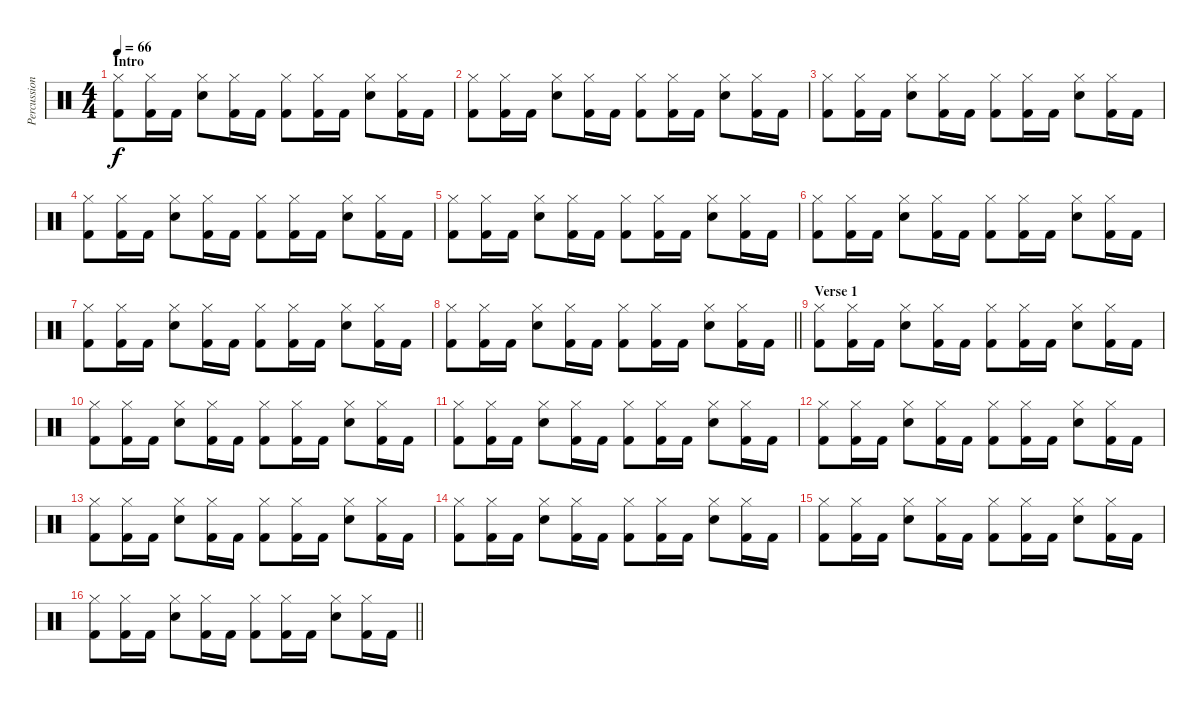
\track ("Percussion" "Percussion") {instrument percussion}
\staff {score}
\articulation defaults
\ts (4 4)
\section ("" "Intro")
\tempo 66
\clef neutral
\ks c
("Hi-Hat (closed)" "Kick (hit) 2").8{dy f} ("Hi-Hat (closed)" "Kick (hit) 2").16 "Kick (hit) 2".16 ("Hi-Hat (closed)" "Electric Snare (hit)").8 ("Hi-Hat (closed)" "Kick (hit) 2").16 "Kick (hit) 2".16 ("Hi-Hat (closed)" "Kick (hit) 2").8 ("Hi-Hat (closed)" "Kick (hit) 2").16 "Kick (hit) 2".16 ("Hi-Hat (closed)" "Electric Snare (hit)").8 ("Hi-Hat (closed)" "Kick (hit) 2").16 "Kick (hit) 2".16 |
("Hi-Hat (closed)" "Kick (hit) 2").8 ("Hi-Hat (closed)" "Kick (hit) 2").16 "Kick (hit) 2".16 ("Hi-Hat (closed)" "Electric Snare (hit)").8 ("Hi-Hat (closed)" "Kick (hit) 2").16 "Kick (hit) 2".16 ("Hi-Hat (closed)" "Kick (hit) 2").8 ("Hi-Hat (closed)" "Kick (hit) 2").16 "Kick (hit) 2".16 ("Hi-Hat (closed)" "Electric Snare (hit)").8 ("Hi-Hat (closed)" "Kick (hit) 2").16 "Kick (hit) 2".16 |
("Hi-Hat (closed)" "Kick (hit) 2").8 ("Hi-Hat (closed)" "Kick (hit) 2").16 "Kick (hit) 2".16 ("Hi-Hat (closed)" "Electric Snare (hit)").8 ("Hi-Hat (closed)" "Kick (hit) 2").16 "Kick (hit) 2".16 ("Hi-Hat (closed)" "Kick (hit) 2").8 ("Hi-Hat (closed)" "Kick (hit) 2").16 "Kick (hit) 2".16 ("Hi-Hat (closed)" "Electric Snare (hit)").8 ("Hi-Hat (closed)" "Kick (hit) 2").16 "Kick (hit) 2".16 |
("Hi-Hat (closed)" "Kick (hit) 2").8 ("Hi-Hat (closed)" "Kick (hit) 2").16 "Kick (hit) 2".16 ("Hi-Hat (closed)" "Electric Snare (hit)").8 ("Hi-Hat (closed)" "Kick (hit) 2").16 "Kick (hit) 2".16 ("Hi-Hat (closed)" "Kick (hit) 2").8 ("Hi-Hat (closed)" "Kick (hit) 2").16 "Kick (hit) 2".16 ("Hi-Hat (closed)" "Electric Snare (hit)").8 ("Hi-Hat (closed)" "Kick (hit) 2").16 "Kick (hit) 2".16 |
("Hi-Hat (closed)" "Kick (hit) 2").8 ("Hi-Hat (closed)" "Kick (hit) 2").16 "Kick (hit) 2".16 ("Hi-Hat (closed)" "Electric Snare (hit)").8 ("Hi-Hat (closed)" "Kick (hit) 2").16 "Kick (hit) 2".16 ("Hi-Hat (closed)" "Kick (hit) 2").8 ("Hi-Hat (closed)" "Kick (hit) 2").16 "Kick (hit) 2".16 ("Hi-Hat (closed)" "Electric Snare (hit)").8 ("Hi-Hat (closed)" "Kick (hit) 2").16 "Kick (hit) 2".16 |
("Hi-Hat (closed)" "Kick (hit) 2").8 ("Hi-Hat (closed)" "Kick (hit) 2").16 "Kick (hit) 2".16 ("Hi-Hat (closed)" "Electric Snare (hit)").8 ("Hi-Hat (closed)" "Kick (hit) 2").16 "Kick (hit) 2".16 ("Hi-Hat (closed)" "Kick (hit) 2").8 ("Hi-Hat (closed)" "Kick (hit) 2").16 "Kick (hit) 2".16 ("Hi-Hat (closed)" "Electric Snare (hit)").8 ("Hi-Hat (closed)" "Kick (hit) 2").16 "Kick (hit) 2".16 |
("Hi-Hat (closed)" "Kick (hit) 2").8 ("Hi-Hat (closed)" "Kick (hit) 2").16 "Kick (hit) 2".16 ("Hi-Hat (closed)" "Electric Snare (hit)").8 ("Hi-Hat (closed)" "Kick (hit) 2").16 "Kick (hit) 2".16 ("Hi-Hat (closed)" "Kick (hit) 2").8 ("Hi-Hat (closed)" "Kick (hit) 2").16 "Kick (hit) 2".16 ("Hi-Hat (closed)" "Electric Snare (hit)").8 ("Hi-Hat (closed)" "Kick (hit) 2").16 "Kick (hit) 2".16 |
\barLineRight lightlight
("Hi-Hat (closed)" "Kick (hit) 2").8 ("Hi-Hat (closed)" "Kick (hit) 2").16 "Kick (hit) 2".16 ("Hi-Hat (closed)" "Electric Snare (hit)").8 ("Hi-Hat (closed)" "Kick (hit) 2").16 "Kick (hit) 2".16 ("Hi-Hat (closed)" "Kick (hit) 2").8 ("Hi-Hat (closed)" "Kick (hit) 2").16 "Kick (hit) 2".16 ("Hi-Hat (closed)" "Electric Snare (hit)").8 ("Hi-Hat (closed)" "Kick (hit) 2").16 "Kick (hit) 2".16 |
\section ("" "Verse 1")
("Hi-Hat (closed)" "Kick (hit) 2").8 ("Hi-Hat (closed)" "Kick (hit) 2").16 "Kick (hit) 2".16 ("Hi-Hat (closed)" "Electric Snare (hit)").8 ("Hi-Hat (closed)" "Kick (hit) 2").16 "Kick (hit) 2".16 ("Hi-Hat (closed)" "Kick (hit) 2").8 ("Hi-Hat (closed)" "Kick (hit) 2").16 "Kick (hit) 2".16 ("Hi-Hat (closed)" "Electric Snare (hit)").8 ("Hi-Hat (closed)" "Kick (hit) 2").16 "Kick (hit) 2".16 |
("Hi-Hat (closed)" "Kick (hit) 2").8 ("Hi-Hat (closed)" "Kick (hit) 2").16 "Kick (hit) 2".16 ("Hi-Hat (closed)" "Electric Snare (hit)").8 ("Hi-Hat (closed)" "Kick (hit) 2").16 "Kick (hit) 2".16 ("Hi-Hat (closed)" "Kick (hit) 2").8 ("Hi-Hat (closed)" "Kick (hit) 2").16 "Kick (hit) 2".16 ("Hi-Hat (closed)" "Electric Snare (hit)").8 ("Hi-Hat (closed)" "Kick (hit) 2").16 "Kick (hit) 2".16 |
("Hi-Hat (closed)" "Kick (hit) 2").8 ("Hi-Hat (closed)" "Kick (hit) 2").16 "Kick (hit) 2".16 ("Hi-Hat (closed)" "Electric Snare (hit)").8 ("Hi-Hat (closed)" "Kick (hit) 2").16 "Kick (hit) 2".16 ("Hi-Hat (closed)" "Kick (hit) 2").8 ("Hi-Hat (closed)" "Kick (hit) 2").16 "Kick (hit) 2".16 ("Hi-Hat (closed)" "Electric Snare (hit)").8 ("Hi-Hat (closed)" "Kick (hit) 2").16 "Kick (hit) 2".16 |
("Hi-Hat (closed)" "Kick (hit) 2").8 ("Hi-Hat (closed)" "Kick (hit) 2").16 "Kick (hit) 2".16 ("Hi-Hat (closed)" "Electric Snare (hit)").8 ("Hi-Hat (closed)" "Kick (hit) 2").16 "Kick (hit) 2".16 ("Hi-Hat (closed)" "Kick (hit) 2").8 ("Hi-Hat (closed)" "Kick (hit) 2").16 "Kick (hit) 2".16 ("Hi-Hat (closed)" "Electric Snare (hit)").8 ("Hi-Hat (closed)" "Kick (hit) 2").16 "Kick (hit) 2".16 |
("Hi-Hat (closed)" "Kick (hit) 2").8 ("Hi-Hat (closed)" "Kick (hit) 2").16 "Kick (hit) 2".16 ("Hi-Hat (closed)" "Electric Snare (hit)").8 ("Hi-Hat (closed)" "Kick (hit) 2").16 "Kick (hit) 2".16 ("Hi-Hat (closed)" "Kick (hit) 2").8 ("Hi-Hat (closed)" "Kick (hit) 2").16 "Kick (hit) 2".16 ("Hi-Hat (closed)" "Electric Snare (hit)").8 ("Hi-Hat (closed)" "Kick (hit) 2").16 "Kick (hit) 2".16 |
("Hi-Hat (closed)" "Kick (hit) 2").8 ("Hi-Hat (closed)" "Kick (hit) 2").16 "Kick (hit) 2".16 ("Hi-Hat (closed)" "Electric Snare (hit)").8 ("Hi-Hat (closed)" "Kick (hit) 2").16 "Kick (hit) 2".16 ("Hi-Hat (closed)" "Kick (hit) 2").8 ("Hi-Hat (closed)" "Kick (hit) 2").16 "Kick (hit) 2".16 ("Hi-Hat (closed)" "Electric Snare (hit)").8 ("Hi-Hat (closed)" "Kick (hit) 2").16 "Kick (hit) 2".16 |
("Hi-Hat (closed)" "Kick (hit) 2").8 ("Hi-Hat (closed)" "Kick (hit) 2").16 "Kick (hit) 2".16 ("Hi-Hat (closed)" "Electric Snare (hit)").8 ("Hi-Hat (closed)" "Kick (hit) 2").16 "Kick (hit) 2".16 ("Hi-Hat (closed)" "Kick (hit) 2").8 ("Hi-Hat (closed)" "Kick (hit) 2").16 "Kick (hit) 2".16 ("Hi-Hat (closed)" "Electric Snare (hit)").8 ("Hi-Hat (closed)" "Kick (hit) 2").16 "Kick (hit) 2".16 |
\barLineRight lightlight
("Hi-Hat (closed)" "Kick (hit) 2").8 ("Hi-Hat (closed)" "Kick (hit) 2").16 "Kick (hit) 2".16 ("Hi-Hat (closed)" "Electric Snare (hit)").8 ("Hi-Hat (closed)" "Kick (hit) 2").16 "Kick (hit) 2".16 ("Hi-Hat (closed)" "Kick (hit) 2").8 ("Hi-Hat (closed)" "Kick (hit) 2").16 "Kick (hit) 2".16 ("Hi-Hat (closed)" "Electric Snare (hit)").8 ("Hi-Hat (closed)" "Kick (hit) 2").16 "Kick (hit) 2".16
